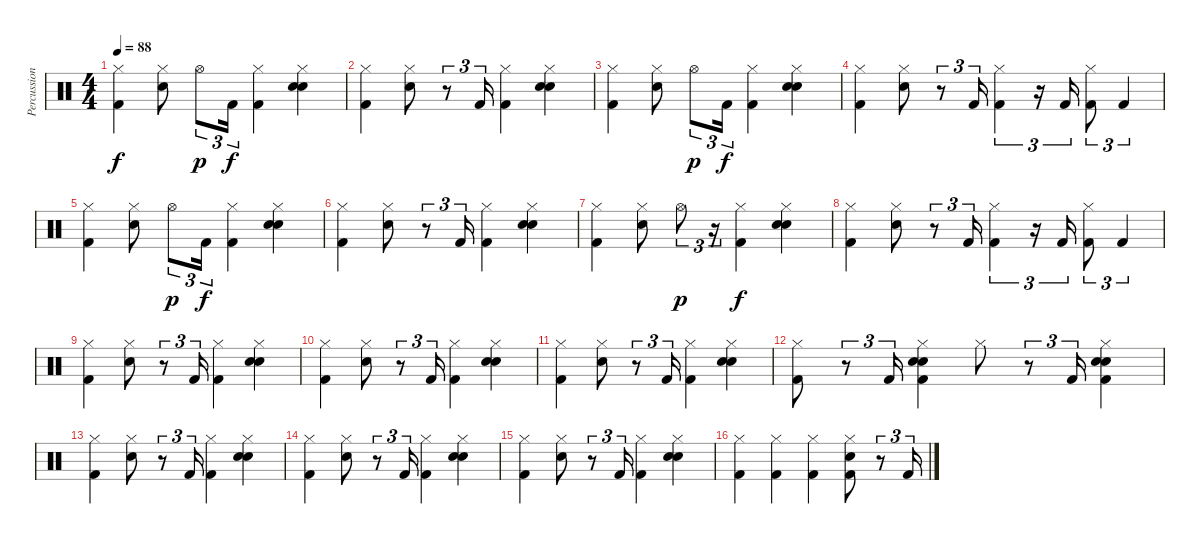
\track ("Percussion" "Percussion") {instrument percussion}
\staff {score}
\articulation defaults
\ts (4 4)
\tempo 88
\clef neutral
\ks c
("Hi-Hat (closed)" "Kick (hit) 2").4{dy f} ("Hi-Hat (closed)" "Electric Snare (hit)").8 "Hi-Hat (open)".8{tu (3 2) dy p} "Kick (hit) 2".16{tu (3 2) dy f} ("Hi-Hat (closed)" "Kick (hit) 2").4 ("Hi-Hat (closed)" "Electric Snare (hit)" "Hand Clap (hit)").4 |
("Hi-Hat (closed)" "Kick (hit) 2").4 ("Hi-Hat (closed)" "Electric Snare (hit)").8 r.8{tu (3 2)} "Kick (hit) 2".16{tu (3 2)} ("Hi-Hat (closed)" "Kick (hit) 2").4 ("Hi-Hat (closed)" "Electric Snare (hit)" "Hand Clap (hit)").4 |
("Hi-Hat (closed)" "Kick (hit) 2").4 ("Hi-Hat (closed)" "Electric Snare (hit)").8 "Hi-Hat (open)".8{tu (3 2) dy p} "Kick (hit) 2".16{tu (3 2) dy f} ("Hi-Hat (closed)" "Kick (hit) 2").4 ("Hi-Hat (closed)" "Electric Snare (hit)" "Hand Clap (hit)").4 |
("Hi-Hat (closed)" "Kick (hit) 2").4 ("Hi-Hat (closed)" "Electric Snare (hit)").8 r.8{tu (3 2)} "Kick (hit) 2".16{tu (3 2)} ("Hi-Hat (closed)" "Kick (hit) 2").4{tu (3 2)} r.16{tu (3 2)} "Kick (hit) 2".16{tu (3 2)} ("Hi-Hat (closed)" "Kick (hit) 2").8{tu (3 2)} "Kick (hit) 2".4{tu (3 2)} |
("Hi-Hat (closed)" "Kick (hit) 2").4 ("Hi-Hat (closed)" "Electric Snare (hit)").8 "Hi-Hat (open)".8{tu (3 2) dy p} "Kick (hit) 2".16{tu (3 2) dy f} ("Hi-Hat (closed)" "Kick (hit) 2").4 ("Hi-Hat (closed)" "Electric Snare (hit)" "Hand Clap (hit)").4 |
("Hi-Hat (closed)" "Kick (hit) 2").4 ("Hi-Hat (closed)" "Electric Snare (hit)").8 r.8{tu (3 2)} "Kick (hit) 2".16{tu (3 2)} ("Hi-Hat (closed)" "Kick (hit) 2").4 ("Hi-Hat (closed)" "Electric Snare (hit)" "Hand Clap (hit)").4 |
("Hi-Hat (closed)" "Kick (hit) 2").4 ("Hi-Hat (closed)" "Electric Snare (hit)").8 "Hi-Hat (open)".8{tu (3 2) dy p} r.16{tu (3 2)} ("Hi-Hat (closed)" "Kick (hit) 2").4{dy f} ("Hi-Hat (closed)" "Electric Snare (hit)" "Hand Clap (hit)").4 |
("Hi-Hat (closed)" "Kick (hit) 2").4 ("Hi-Hat (closed)" "Electric Snare (hit)").8 r.8{tu (3 2)} "Kick (hit) 2".16{tu (3 2)} ("Hi-Hat (closed)" "Kick (hit) 2").4{tu (3 2)} r.16{tu (3 2)} "Kick (hit) 2".16{tu (3 2)} ("Hi-Hat (closed)" "Kick (hit) 2").8{tu (3 2)} "Kick (hit) 2".4{tu (3 2)} |
("Hi-Hat (closed)" "Kick (hit) 2").4 ("Hi-Hat (closed)" "Electric Snare (hit)").8 r.8{tu (3 2)} "Kick (hit) 2".16{tu (3 2)} ("Hi-Hat (closed)" "Kick (hit) 2").4 ("Hi-Hat (closed)" "Electric Snare (hit)" "Hand Clap (hit)").4 |
("Hi-Hat (closed)" "Kick (hit) 2").4 ("Hi-Hat (closed)" "Electric Snare (hit)").8 r.8{tu (3 2)} "Kick (hit) 2".16{tu (3 2)} ("Hi-Hat (closed)" "Kick (hit) 2").4 ("Hi-Hat (closed)" "Electric Snare (hit)" "Hand Clap (hit)").4 |
("Hi-Hat (closed)" "Kick (hit) 2").4 ("Hi-Hat (closed)" "Electric Snare (hit)").8 r.8{tu (3 2)} "Kick (hit) 2".16{tu (3 2)} ("Hi-Hat (closed)" "Kick (hit) 2").4 ("Hi-Hat (closed)" "Electric Snare (hit)" "Hand Clap (hit)").4 |
("Hi-Hat (closed)" "Kick (hit) 2").8 r.8{tu (3 2)} "Kick (hit) 2".16{tu (3 2)} ("Hi-Hat (closed)" "Electric Snare (hit)" "Hand Clap (hit)" "Kick (hit) 2").4 "Hi-Hat (closed)".8 r.8{tu (3 2)} "Kick (hit) 2".16{tu (3 2)} ("Hi-Hat (closed)" "Electric Snare (hit)" "Hand Clap (hit)" "Kick (hit) 2").4 |
("Hi-Hat (closed)" "Kick (hit) 2").4 ("Hi-Hat (closed)" "Electric Snare (hit)").8 r.8{tu (3 2)} "Kick (hit) 2".16{tu (3 2)} ("Hi-Hat (closed)" "Kick (hit) 2").4 ("Hi-Hat (closed)" "Electric Snare (hit)" "Hand Clap (hit)").4 |
("Hi-Hat (closed)" "Kick (hit) 2").4 ("Hi-Hat (closed)" "Electric Snare (hit)").8 r.8{tu (3 2)} "Kick (hit) 2".16{tu (3 2)} ("Hi-Hat (closed)" "Kick (hit) 2").4 ("Hi-Hat (closed)" "Electric Snare (hit)" "Hand Clap (hit)").4 |
("Hi-Hat (closed)" "Kick (hit) 2").4 ("Hi-Hat (closed)" "Electric Snare (hit)").8 r.8{tu (3 2)} "Kick (hit) 2".16{tu (3 2)} ("Hi-Hat (closed)" "Kick (hit) 2").4 ("Hi-Hat (closed)" "Electric Snare (hit)" "Hand Clap (hit)").4 |
("Hi-Hat (closed)" "Kick (hit) 2").4 ("Hi-Hat (closed)" "Kick (hit) 2").4 ("Hi-Hat (closed)" "Kick (hit) 2").4 ("Hi-Hat (closed)" "Electric Snare (hit)" "Kick (hit) 2").8 r.8{tu (3 2)} "Kick (hit) 2".16{tu (3 2)}
